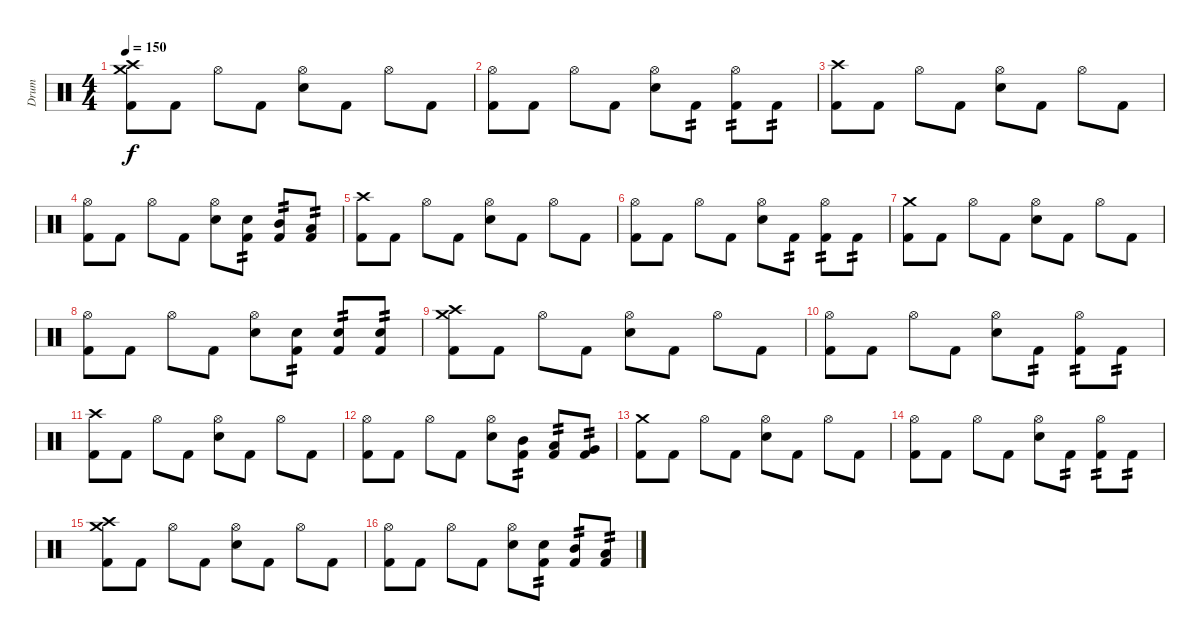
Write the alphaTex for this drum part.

\track ("Drum" "Drum") {instrument percussion}
\staff {score}
\articulation defaults
\ts (4 4)
\section ("" "")
\tempo 150
\clef neutral
\ks c
("Crash high (hit)" "Crash medium (hit)" "Kick (hit) 2").8{dy f} "Kick (hit) 2".8 "Hi-Hat (open)".8 "Kick (hit) 2".8 ("Hi-Hat (open)" "Snare (hit) 2").8 "Kick (hit) 2".8 "Hi-Hat (open)".8 "Kick (hit) 2".8 |
("Hi-Hat (open)" "Kick (hit) 2").8 "Kick (hit) 2".8 "Hi-Hat (open)".8 "Kick (hit) 2".8 ("Hi-Hat (open)" "Snare (hit) 2").8 "Kick (hit) 2".8{tp 2} ("Hi-Hat (open)" "Kick (hit) 2").8{tp 2} "Kick (hit) 2".8{tp 2} |
("Crash high (hit)" "Kick (hit) 2").8 "Kick (hit) 2".8 "Hi-Hat (open)".8 "Kick (hit) 2".8 ("Hi-Hat (open)" "Snare (hit) 2").8 "Kick (hit) 2".8 "Hi-Hat (open)".8 "Kick (hit) 2".8 |
("Hi-Hat (open)" "Kick (hit) 2").8 "Kick (hit) 2".8 "Hi-Hat (open)".8 "Kick (hit) 2".8 ("Hi-Hat (open)" "Snare (hit) 2").8 ("Snare (hit) 2" "Kick (hit) 2").8{tp 2} ("Mid Tom (hit)" "Kick (hit) 2").8{tp 2} ("Low Tom (hit)" "Kick (hit) 2").8{tp 2} |
("Crash high (hit)" "Kick (hit) 2").8 "Kick (hit) 2".8 "Hi-Hat (open)".8 "Kick (hit) 2".8 ("Hi-Hat (open)" "Snare (hit) 2").8 "Kick (hit) 2".8 "Hi-Hat (open)".8 "Kick (hit) 2".8 |
("Hi-Hat (open)" "Kick (hit) 2").8 "Kick (hit) 2".8 "Hi-Hat (open)".8 "Kick (hit) 2".8 ("Hi-Hat (open)" "Snare (hit) 2").8 "Kick (hit) 2".8{tp 2} ("Hi-Hat (open)" "Kick (hit) 2").8{tp 2} "Kick (hit) 2".8{tp 2} |
("Crash medium (hit)" "Kick (hit) 2").8 "Kick (hit) 2".8 "Hi-Hat (open)".8 "Kick (hit) 2".8 ("Hi-Hat (open)" "Snare (hit) 2").8 "Kick (hit) 2".8 "Hi-Hat (open)".8 "Kick (hit) 2".8 |
("Hi-Hat (open)" "Kick (hit) 2").8 "Kick (hit) 2".8 "Hi-Hat (open)".8 "Kick (hit) 2".8 ("Hi-Hat (open)" "Snare (hit) 2").8 ("Snare (hit) 2" "Kick (hit) 2").8{tp 2} ("Snare (hit) 2" "Kick (hit) 2").8{tp 2} ("Snare (hit) 2" "Kick (hit) 2").8{tp 2} |
("Crash high (hit)" "Crash medium (hit)" "Kick (hit) 2").8 "Kick (hit) 2".8 "Hi-Hat (open)".8 "Kick (hit) 2".8 ("Hi-Hat (open)" "Snare (hit) 2").8 "Kick (hit) 2".8 "Hi-Hat (open)".8 "Kick (hit) 2".8 |
("Hi-Hat (open)" "Kick (hit) 2").8 "Kick (hit) 2".8 "Hi-Hat (open)".8 "Kick (hit) 2".8 ("Hi-Hat (open)" "Snare (hit) 2").8 "Kick (hit) 2".8{tp 2} ("Hi-Hat (open)" "Kick (hit) 2").8{tp 2} "Kick (hit) 2".8{tp 2} |
("Crash high (hit)" "Kick (hit) 2").8 "Kick (hit) 2".8 "Hi-Hat (open)".8 "Kick (hit) 2".8 ("Hi-Hat (open)" "Snare (hit) 2").8 "Kick (hit) 2".8 "Hi-Hat (open)".8 "Kick (hit) 2".8 |
("Hi-Hat (open)" "Kick (hit) 2").8 "Kick (hit) 2".8 "Hi-Hat (open)".8 "Kick (hit) 2".8 ("Hi-Hat (open)" "Snare (hit) 2").8 ("Mid Tom (hit)" "Kick (hit) 2").8{tp 2} ("Low Tom (hit)" "Kick (hit) 2").8{tp 2} ("Very Low Tom (hit)" "Kick (hit) 2").8{tp 2} |
("Crash medium (hit)" "Kick (hit) 2").8 "Kick (hit) 2".8 "Hi-Hat (open)".8 "Kick (hit) 2".8 ("Hi-Hat (open)" "Snare (hit) 2").8 "Kick (hit) 2".8 "Hi-Hat (open)".8 "Kick (hit) 2".8 |
("Hi-Hat (open)" "Kick (hit) 2").8 "Kick (hit) 2".8 "Hi-Hat (open)".8 "Kick (hit) 2".8 ("Hi-Hat (open)" "Snare (hit) 2").8 "Kick (hit) 2".8{tp 2} ("Hi-Hat (open)" "Kick (hit) 2").8{tp 2} "Kick (hit) 2".8{tp 2} |
("Crash high (hit)" "Crash medium (hit)" "Kick (hit) 2").8 "Kick (hit) 2".8 "Hi-Hat (open)".8 "Kick (hit) 2".8 ("Hi-Hat (open)" "Snare (hit) 2").8 "Kick (hit) 2".8 "Hi-Hat (open)".8 "Kick (hit) 2".8 |
("Hi-Hat (open)" "Kick (hit) 2").8 "Kick (hit) 2".8 "Hi-Hat (open)".8 "Kick (hit) 2".8 ("Hi-Hat (open)" "Snare (hit) 2").8 ("Snare (hit) 2" "Kick (hit) 2").8{tp 2} ("Mid Tom (hit)" "Kick (hit) 2").8{tp 2} ("Low Tom (hit)" "Kick (hit) 2").8{tp 2}
